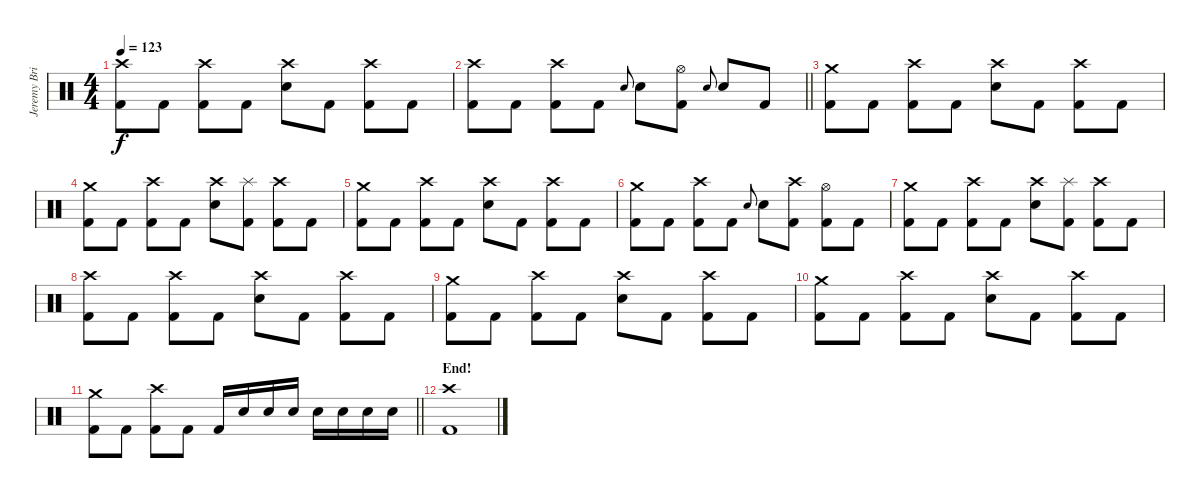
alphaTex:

\track ("Jeremy Brian [Drums]" "Jeremy Bri") {instrument percussion}
\staff {score}
\articulation defaults
\ts (4 4)
\tempo 123
\clef neutral
\ks c
("Crash high (hit)" "Kick (hit) 2").8{dy f} "Kick (hit) 2".8 ("Crash high (hit)" "Kick (hit) 2").8 "Kick (hit) 2".8 ("Crash high (hit)" "Electric Snare (hit)").8 "Kick (hit) 2".8 ("Crash high (hit)" "Kick (hit) 2").8 "Kick (hit) 2".8 |
\barLineRight lightlight
("Crash high (hit)" "Kick (hit) 2").8 "Kick (hit) 2".8 ("Crash high (hit)" "Kick (hit) 2").8 "Kick (hit) 2".8 "Electric Snare (hit)".8{gr onbeat} "Electric Snare (hit)".8 ("Hi-Hat (open)" "Kick (hit) 2").8 "Electric Snare (hit)".8{gr onbeat} "Electric Snare (hit)".8 "Kick (hit) 2".8 |
("Crash medium (hit)" "Kick (hit) 2").8 "Kick (hit) 2".8 ("Crash high (hit)" "Kick (hit) 2").8 "Kick (hit) 2".8 ("Crash high (hit)" "Electric Snare (hit)").8 "Kick (hit) 2".8 ("Crash high (hit)" "Kick (hit) 2").8 "Kick (hit) 2".8 |
("Crash medium (hit)" "Kick (hit) 2").8 "Kick (hit) 2".8 ("Crash high (hit)" "Kick (hit) 2").8 "Kick (hit) 2".8 ("Crash high (hit)" "Electric Snare (hit)").8 ("Splash (hit)" "Kick (hit) 2").8 ("Crash high (hit)" "Kick (hit) 2").8 "Kick (hit) 2".8 |
("Crash medium (hit)" "Kick (hit) 2").8 "Kick (hit) 2".8 ("Crash high (hit)" "Kick (hit) 2").8 "Kick (hit) 2".8 ("Crash high (hit)" "Electric Snare (hit)").8 "Kick (hit) 2".8 ("Crash high (hit)" "Kick (hit) 2").8 "Kick (hit) 2".8 |
("Crash medium (hit)" "Kick (hit) 2").8 "Kick (hit) 2".8 ("Crash high (hit)" "Kick (hit) 2").8 "Kick (hit) 2".8 "Electric Snare (hit)".8{gr onbeat} "Electric Snare (hit)".8 ("Crash high (hit)" "Kick (hit) 2").8 ("Hi-Hat (open)" "Kick (hit) 2").8 "Kick (hit) 2".8 |
("Crash medium (hit)" "Kick (hit) 2").8 "Kick (hit) 2".8 ("Crash high (hit)" "Kick (hit) 2").8 "Kick (hit) 2".8 ("Crash high (hit)" "Electric Snare (hit)").8 ("Splash (hit)" "Kick (hit) 2").8 ("Crash high (hit)" "Kick (hit) 2").8 "Kick (hit) 2".8 |
("Crash high (hit)" "Kick (hit) 2").8 "Kick (hit) 2".8 ("Crash high (hit)" "Kick (hit) 2").8 "Kick (hit) 2".8 ("Crash high (hit)" "Electric Snare (hit)").8 "Kick (hit) 2".8 ("Crash high (hit)" "Kick (hit) 2").8 "Kick (hit) 2".8 |
("Crash medium (hit)" "Kick (hit) 2").8 "Kick (hit) 2".8 ("Crash high (hit)" "Kick (hit) 2").8 "Kick (hit) 2".8 ("Crash high (hit)" "Electric Snare (hit)").8 "Kick (hit) 2".8 ("Crash high (hit)" "Kick (hit) 2").8 "Kick (hit) 2".8 |
("Crash medium (hit)" "Kick (hit) 2").8 "Kick (hit) 2".8 ("Crash high (hit)" "Kick (hit) 2").8 "Kick (hit) 2".8 ("Crash high (hit)" "Electric Snare (hit)").8 "Kick (hit) 2".8 ("Crash high (hit)" "Kick (hit) 2").8 "Kick (hit) 2".8 |
\barLineRight lightlight
("Crash medium (hit)" "Kick (hit) 2").8 "Kick (hit) 2".8 ("Crash high (hit)" "Kick (hit) 2").8 "Kick (hit) 2".8 "Kick (hit) 2".16 "Electric Snare (hit)".16 "Electric Snare (hit)".16 "Electric Snare (hit)".16 "Electric Snare (hit)".16 "Electric Snare (hit)".16 "Electric Snare (hit)".16 "Electric Snare (hit)".16 |
\section ("" "End!")
("Crash high (hit)" "Kick (hit) 2").1
